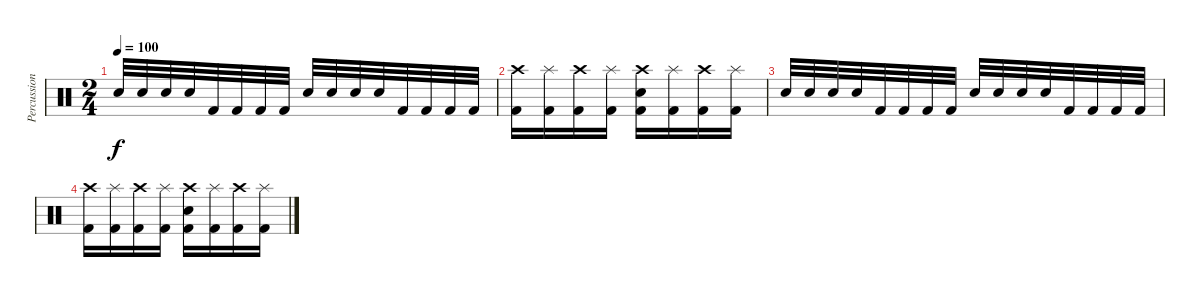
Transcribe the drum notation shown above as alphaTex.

\track ("Percussion" "Percussion") {instrument percussion}
\staff {score}
\articulation defaults
\ts (2 4)
\tempo 100
\clef neutral
\ks c "Electric Snare (hit)".32{dy f} "Electric Snare (hit)".32 "Electric Snare (hit)".32 "Electric Snare (hit)".32 "Kick (hit) 2".32 "Kick (hit) 2".32 "Kick (hit) 2".32 "Kick (hit) 2".32 "Electric Snare (hit)".32 "Electric Snare (hit)".32 "Electric Snare (hit)".32 "Electric Snare (hit)".32 "Kick (hit) 2".32 "Kick (hit) 2".32 "Kick (hit) 2".32 "Kick (hit) 2".32
|
("Crash high (hit)" "Kick (hit) 2").16 ("Splash (hit)" "Kick (hit) 2").16 ("Crash high (hit)" "Kick (hit) 2").16 ("Splash (hit)" "Kick (hit) 2").16 ("Crash high (hit)" "Electric Snare (hit)" "Kick (hit) 2").16 ("Splash (hit)" "Kick (hit) 2").16 ("Crash high (hit)" "Kick (hit) 2").16 ("Splash (hit)" "Kick (hit) 2").16 |
"Electric Snare (hit)".32 "Electric Snare (hit)".32 "Electric Snare (hit)".32 "Electric Snare (hit)".32 "Kick (hit) 2".32 "Kick (hit) 2".32 "Kick (hit) 2".32 "Kick (hit) 2".32 "Electric Snare (hit)".32 "Electric Snare (hit)".32 "Electric Snare (hit)".32 "Electric Snare (hit)".32 "Kick (hit) 2".32 "Kick (hit) 2".32 "Kick (hit) 2".32 "Kick (hit) 2".32 |
("Crash high (hit)" "Kick (hit) 2").16 ("Splash (hit)" "Kick (hit) 2").16 ("Crash high (hit)" "Kick (hit) 2").16 ("Splash (hit)" "Kick (hit) 2").16 ("Crash high (hit)" "Electric Snare (hit)" "Kick (hit) 2").16 ("Splash (hit)" "Kick (hit) 2").16 ("Crash high (hit)" "Kick (hit) 2").16 ("Splash (hit)" "Kick (hit) 2").16
